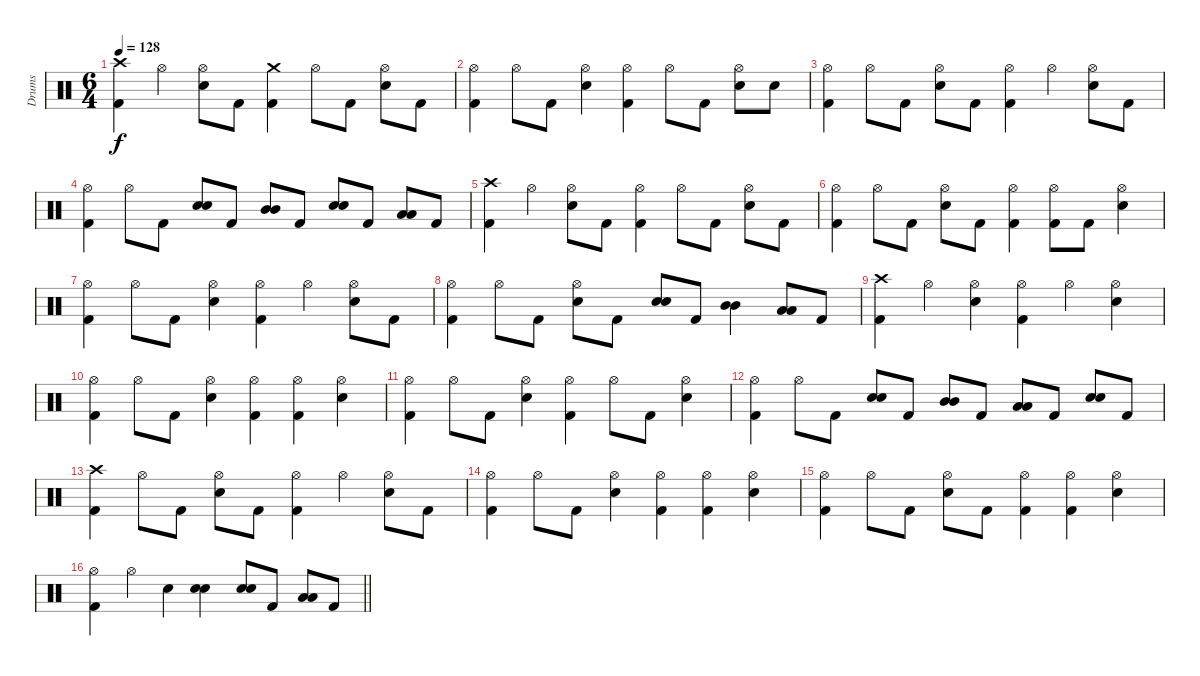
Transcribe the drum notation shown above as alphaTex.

\track ("Drums" "Drums") {instrument percussion}
\staff {score}
\articulation defaults
\ts (6 4)
\tempo 128
\clef neutral
\ks c
("Crash high (hit)" "Kick (hit) 2").4{dy f} "Hi-Hat (open)".4 ("Hi-Hat (open)" "Electric Snare (hit)").8 "Kick (hit) 2".8 ("Crash medium (hit)" "Kick (hit) 2").4 "Hi-Hat (open)".8 "Kick (hit) 2".8 ("Hi-Hat (open)" "Electric Snare (hit)").8 "Kick (hit) 2".8 |
("Hi-Hat (open)" "Kick (hit) 2").4 "Hi-Hat (open)".8 "Kick (hit) 2".8 ("Hi-Hat (open)" "Electric Snare (hit)").4 ("Hi-Hat (open)" "Kick (hit) 2").4 "Hi-Hat (open)".8 "Kick (hit) 2".8 ("Hi-Hat (open)" "Electric Snare (hit)").8 "Electric Snare (hit)".8 |
("Hi-Hat (open)" "Kick (hit) 2").4 "Hi-Hat (open)".8 "Kick (hit) 2".8 ("Hi-Hat (open)" "Electric Snare (hit)").8 "Kick (hit) 2".8 ("Hi-Hat (open)" "Kick (hit) 2").4 "Hi-Hat (open)".4 ("Hi-Hat (open)" "Electric Snare (hit)").8 "Kick (hit) 2".8 |
("Hi-Hat (open)" "Kick (hit) 2").4 "Hi-Hat (open)".8 "Kick (hit) 2".8 ("Electric Snare (hit)" "Electric Snare (hit)").8{bu 60} "Kick (hit) 2".8 ("Mid Tom (hit)" "Mid Tom (hit)").8{bu 120} "Kick (hit) 2".8 ("Electric Snare (hit)" "Electric Snare (hit)").8{bu 120} "Kick (hit) 2".8 ("Low Tom (hit)" "Low Tom (hit)").8{bu 120} "Kick (hit) 2".8 |
("Crash high (hit)" "Kick (hit) 2").4 "Hi-Hat (open)".4 ("Hi-Hat (open)" "Electric Snare (hit)").8 "Kick (hit) 2".8 ("Hi-Hat (open)" "Kick (hit) 2").4 "Hi-Hat (open)".8 "Kick (hit) 2".8 ("Hi-Hat (open)" "Electric Snare (hit)").8 "Kick (hit) 2".8 |
("Hi-Hat (open)" "Kick (hit) 2").4 "Hi-Hat (open)".8 "Kick (hit) 2".8 ("Hi-Hat (open)" "Electric Snare (hit)").8 "Kick (hit) 2".8 ("Hi-Hat (open)" "Kick (hit) 2").4 ("Hi-Hat (open)" "Kick (hit) 2").8 "Kick (hit) 2".8 ("Hi-Hat (open)" "Electric Snare (hit)").4 |
("Hi-Hat (open)" "Kick (hit) 2").4 "Hi-Hat (open)".8 "Kick (hit) 2".8 ("Hi-Hat (open)" "Electric Snare (hit)").4 ("Hi-Hat (open)" "Kick (hit) 2").4 "Hi-Hat (open)".4 ("Hi-Hat (open)" "Electric Snare (hit)").8 "Kick (hit) 2".8 |
("Hi-Hat (open)" "Kick (hit) 2").4 "Hi-Hat (open)".8 "Kick (hit) 2".8 ("Hi-Hat (open)" "Electric Snare (hit)").8 "Kick (hit) 2".8 ("Electric Snare (hit)" "Electric Snare (hit)").8{bu 60} "Kick (hit) 2".8 ("Mid Tom (hit)" "Mid Tom (hit)").4{bu 60} ("Low Tom (hit)" "Low Tom (hit)").8{bu 120} "Kick (hit) 2".8 |
("Crash high (hit)" "Kick (hit) 2").4 "Hi-Hat (open)".4 ("Hi-Hat (open)" "Electric Snare (hit)").4 ("Hi-Hat (open)" "Kick (hit) 2").4 "Hi-Hat (open)".4 ("Hi-Hat (open)" "Electric Snare (hit)").4 |
("Hi-Hat (open)" "Kick (hit) 2").4 "Hi-Hat (open)".8 "Kick (hit) 2".8 ("Hi-Hat (open)" "Electric Snare (hit)").4 ("Hi-Hat (open)" "Kick (hit) 2").4 ("Hi-Hat (open)" "Kick (hit) 2").4 ("Hi-Hat (open)" "Electric Snare (hit)").4 |
("Hi-Hat (open)" "Kick (hit) 2").4 "Hi-Hat (open)".8 "Kick (hit) 2".8 ("Hi-Hat (open)" "Electric Snare (hit)").4 ("Hi-Hat (open)" "Kick (hit) 2").4 "Hi-Hat (open)".8 "Kick (hit) 2".8 ("Hi-Hat (open)" "Electric Snare (hit)").4 |
("Hi-Hat (open)" "Kick (hit) 2").4 "Hi-Hat (open)".8 "Kick (hit) 2".8 ("Electric Snare (hit)" "Electric Snare (hit)").8{bu 60} "Kick (hit) 2".8 ("Mid Tom (hit)" "Mid Tom (hit)").8{bu 120} "Kick (hit) 2".8 ("Low Tom (hit)" "Low Tom (hit)").8{bu 120} "Kick (hit) 2".8 ("Electric Snare (hit)" "Electric Snare (hit)").8{bu 120} "Kick (hit) 2".8 |
("Crash high (hit)" "Kick (hit) 2").4 "Hi-Hat (open)".8 "Kick (hit) 2".8 ("Hi-Hat (open)" "Electric Snare (hit)").8 "Kick (hit) 2".8 ("Hi-Hat (open)" "Kick (hit) 2").4 "Hi-Hat (open)".4 ("Hi-Hat (open)" "Electric Snare (hit)").8 "Kick (hit) 2".8 |
("Hi-Hat (open)" "Kick (hit) 2").4 "Hi-Hat (open)".8 "Kick (hit) 2".8 ("Hi-Hat (open)" "Electric Snare (hit)").4 ("Hi-Hat (open)" "Kick (hit) 2").4 ("Hi-Hat (open)" "Kick (hit) 2").4 ("Hi-Hat (open)" "Electric Snare (hit)").4 |
("Hi-Hat (open)" "Kick (hit) 2").4 "Hi-Hat (open)".8 "Kick (hit) 2".8 ("Hi-Hat (open)" "Electric Snare (hit)").8 "Kick (hit) 2".8 ("Hi-Hat (open)" "Kick (hit) 2").4 ("Hi-Hat (open)" "Kick (hit) 2").4 ("Hi-Hat (open)" "Electric Snare (hit)").4 |
\barLineRight lightlight
("Hi-Hat (open)" "Kick (hit) 2").4 "Hi-Hat (open)".4 "Electric Snare (hit)".4 ("Electric Snare (hit)" "Electric Snare (hit)").4{bu 120} ("Electric Snare (hit)" "Electric Snare (hit)").8{bu 120} "Kick (hit) 2".8 ("Low Tom (hit)" "Low Tom (hit)").8{bu 120} "Kick (hit) 2".8
